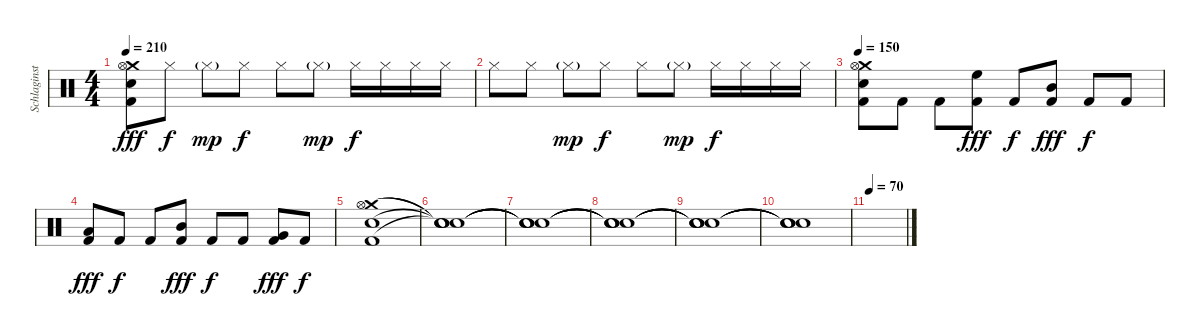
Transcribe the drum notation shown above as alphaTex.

\track ("Schlaginstrumente - Auswahl" "Schlaginst") {instrument percussion}
\staff {score}
\articulation defaults
\ts (4 4)
\tempo 210
\clef neutral
\ks c
("Crash medium (hit)" "Kick (hit) 2" "Snare (hit) 2" "Hi-Hat (open)").8{dy fff} "Hi-Hat (closed)".8{dy f} "Hi-Hat (closed)"{g}.8{dy mp} "Hi-Hat (closed)".8{dy f} "Hi-Hat (closed)".8 "Hi-Hat (closed)"{g}.8{dy mp} "Hi-Hat (closed)".16{dy f} "Hi-Hat (closed)".16 "Hi-Hat (closed)".16 "Hi-Hat (closed)".16 |
"Hi-Hat (closed)".8 "Hi-Hat (closed)".8 "Hi-Hat (closed)"{g}.8{dy mp} "Hi-Hat (closed)".8{dy f} "Hi-Hat (closed)".8 "Hi-Hat (closed)"{g}.8{dy mp} "Hi-Hat (closed)".16{dy f} "Hi-Hat (closed)".16 "Hi-Hat (closed)".16 "Hi-Hat (closed)".16 |
\tempo 150
("Crash medium (hit)" "Kick (hit) 2" "Snare (hit) 2" "Hi-Hat (open)").8 "Kick (hit) 2".8 "Kick (hit) 2".8 ("Kick (hit) 2" "High Floor Tom (hit)").8{dy fff} "Kick (hit) 2".8{dy f} ("Kick (hit) 2" "Mid Tom (hit)").8{dy fff} "Kick (hit) 2".8{dy f} "Kick (hit) 2".8 |
("Kick (hit) 2" "Low Tom (hit)").8{dy fff} "Kick (hit) 2".8{dy f} "Kick (hit) 2".8 ("Kick (hit) 2" "Mid Tom (hit)").8{dy fff} "Kick (hit) 2".8{dy f} "Kick (hit) 2".8 ("Kick (hit) 2" "Very Low Tom (hit)").8{dy fff} "Kick (hit) 2".8{dy f} |
("Crash medium (hit)" "Kick (hit) 2" "Snare (hit) 2" "Hi-Hat (open)").1 |
("Snare (hit)"{t} "Snare (hit)"{t} "Snare (hit)"{t} "Snare (hit)"{t}).1 |
("Snare (hit)"{t} "Snare (hit)"{t} "Snare (hit)"{t} "Snare (hit)"{t}).1 |
("Snare (hit)"{t} "Snare (hit)"{t} "Snare (hit)"{t} "Snare (hit)"{t}).1 |
("Snare (hit)"{t} "Snare (hit)"{t} "Snare (hit)"{t} "Snare (hit)"{t}).1 |
("Snare (hit)"{t} "Snare (hit)"{t} "Snare (hit)"{t} "Snare (hit)"{t}).1 |
\tempo 70
